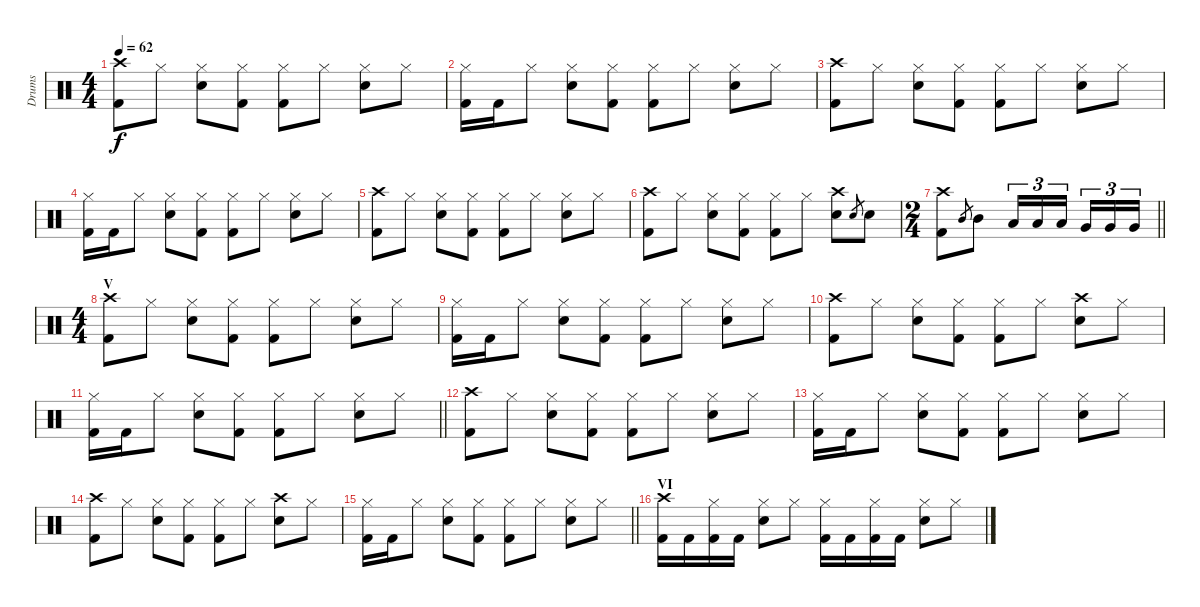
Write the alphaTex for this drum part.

\track ("Drums" "Drums") {instrument percussion}
\staff {score}
\articulation defaults
\ts (4 4)
\tempo 62
\clef neutral
\ks c
("Crash high (hit)" "Kick (hit) 2").8{dy f} "Hi-Hat (closed)".8 ("Hi-Hat (closed)" "Snare (hit) 2").8 ("Hi-Hat (closed)" "Kick (hit) 2").8 ("Hi-Hat (closed)" "Kick (hit) 2").8 "Hi-Hat (closed)".8 ("Hi-Hat (closed)" "Snare (hit) 2").8 "Hi-Hat (closed)".8 |
("Hi-Hat (closed)" "Kick (hit) 2").16 "Kick (hit) 2".16 "Hi-Hat (closed)".8 ("Hi-Hat (closed)" "Snare (hit) 2").8 ("Hi-Hat (closed)" "Kick (hit) 2").8 ("Hi-Hat (closed)" "Kick (hit) 2").8 "Hi-Hat (closed)".8 ("Hi-Hat (closed)" "Snare (hit) 2").8 "Hi-Hat (closed)".8 |
("Crash high (hit)" "Kick (hit) 2").8 "Hi-Hat (closed)".8 ("Hi-Hat (closed)" "Snare (hit) 2").8 ("Hi-Hat (closed)" "Kick (hit) 2").8 ("Hi-Hat (closed)" "Kick (hit) 2").8 "Hi-Hat (closed)".8 ("Hi-Hat (closed)" "Snare (hit) 2").8 "Hi-Hat (closed)".8 |
("Hi-Hat (closed)" "Kick (hit) 2").16 "Kick (hit) 2".16 "Hi-Hat (closed)".8 ("Hi-Hat (closed)" "Snare (hit) 2").8 ("Hi-Hat (closed)" "Kick (hit) 2").8 ("Hi-Hat (closed)" "Kick (hit) 2").8 "Hi-Hat (closed)".8 ("Hi-Hat (closed)" "Snare (hit) 2").8 "Hi-Hat (closed)".8 |
("Crash high (hit)" "Kick (hit) 2").8 "Hi-Hat (closed)".8 ("Hi-Hat (closed)" "Snare (hit) 2").8 ("Hi-Hat (closed)" "Kick (hit) 2").8 ("Hi-Hat (closed)" "Kick (hit) 2").8 "Hi-Hat (closed)".8 ("Hi-Hat (closed)" "Snare (hit) 2").8 "Hi-Hat (closed)".8 |
("Crash high (hit)" "Kick (hit) 2").8 "Hi-Hat (closed)".8 ("Hi-Hat (closed)" "Snare (hit) 2").8 ("Hi-Hat (closed)" "Kick (hit) 2").8 ("Hi-Hat (closed)" "Kick (hit) 2").8 "Hi-Hat (closed)".8 ("Crash high (hit)" "Snare (hit) 2").8 "Snare (hit) 2".8{gr} "Snare (hit) 2".8 |
\ts (2 4)
\barLineRight lightlight
("Crash high (hit)" "Kick (hit) 2").8 "Mid Tom (hit)".8{gr} "Mid Tom (hit)".8 "Low Tom (hit)".16{tu (3 2)} "Low Tom (hit)".16{tu (3 2)} "Low Tom (hit)".16{tu (3 2) beam splitsecondary} "Very Low Tom (hit)".16{tu (3 2)} "Very Low Tom (hit)".16{tu (3 2)} "Very Low Tom (hit)".16{tu (3 2)} |
\ts (4 4)
\section ("" "V")
("Crash high (hit)" "Kick (hit) 2").8 "Hi-Hat (closed)".8 ("Hi-Hat (closed)" "Snare (hit) 2").8 ("Hi-Hat (closed)" "Kick (hit) 2").8 ("Hi-Hat (closed)" "Kick (hit) 2").8 "Hi-Hat (closed)".8 ("Hi-Hat (closed)" "Snare (hit) 2").8 "Hi-Hat (closed)".8 |
("Hi-Hat (closed)" "Kick (hit) 2").16 "Kick (hit) 2".16 "Hi-Hat (closed)".8 ("Hi-Hat (closed)" "Snare (hit) 2").8 ("Hi-Hat (closed)" "Kick (hit) 2").8 ("Hi-Hat (closed)" "Kick (hit) 2").8 "Hi-Hat (closed)".8 ("Hi-Hat (closed)" "Snare (hit) 2").8 "Hi-Hat (closed)".8 |
("Crash high (hit)" "Kick (hit) 2").8 "Hi-Hat (closed)".8 ("Hi-Hat (closed)" "Snare (hit) 2").8 ("Hi-Hat (closed)" "Kick (hit) 2").8 ("Hi-Hat (closed)" "Kick (hit) 2").8 "Hi-Hat (closed)".8 ("Crash high (hit)" "Snare (hit) 2").8 "Hi-Hat (closed)".8 |
\barLineRight lightlight
("Hi-Hat (closed)" "Kick (hit) 2").16 "Kick (hit) 2".16 "Hi-Hat (closed)".8 ("Hi-Hat (closed)" "Snare (hit) 2").8 ("Hi-Hat (closed)" "Kick (hit) 2").8 ("Hi-Hat (closed)" "Kick (hit) 2").8 "Hi-Hat (closed)".8 ("Hi-Hat (closed)" "Snare (hit) 2").8 "Hi-Hat (closed)".8 |
("Crash high (hit)" "Kick (hit) 2").8 "Hi-Hat (closed)".8 ("Hi-Hat (closed)" "Snare (hit) 2").8 ("Hi-Hat (closed)" "Kick (hit) 2").8 ("Hi-Hat (closed)" "Kick (hit) 2").8 "Hi-Hat (closed)".8 ("Hi-Hat (closed)" "Snare (hit) 2").8 "Hi-Hat (closed)".8 |
("Hi-Hat (closed)" "Kick (hit) 2").16 "Kick (hit) 2".16 "Hi-Hat (closed)".8 ("Hi-Hat (closed)" "Snare (hit) 2").8 ("Hi-Hat (closed)" "Kick (hit) 2").8 ("Hi-Hat (closed)" "Kick (hit) 2").8 "Hi-Hat (closed)".8 ("Hi-Hat (closed)" "Snare (hit) 2").8 "Hi-Hat (closed)".8 |
("Crash high (hit)" "Kick (hit) 2").8 "Hi-Hat (closed)".8 ("Hi-Hat (closed)" "Snare (hit) 2").8 ("Hi-Hat (closed)" "Kick (hit) 2").8 ("Hi-Hat (closed)" "Kick (hit) 2").8 "Hi-Hat (closed)".8 ("Crash high (hit)" "Snare (hit) 2").8 "Hi-Hat (closed)".8 |
\barLineRight lightlight
("Hi-Hat (closed)" "Kick (hit) 2").16 "Kick (hit) 2".16 "Hi-Hat (closed)".8 ("Hi-Hat (closed)" "Snare (hit) 2").8 ("Hi-Hat (closed)" "Kick (hit) 2").8 ("Hi-Hat (closed)" "Kick (hit) 2").8 "Hi-Hat (closed)".8 ("Hi-Hat (closed)" "Snare (hit) 2").8 "Hi-Hat (closed)".8 |
\section ("" "VI")
("Crash high (hit)" "Kick (hit) 2").16 "Kick (hit) 2".16 ("Hi-Hat (closed)" "Kick (hit) 2").16 "Kick (hit) 2".16 ("Hi-Hat (closed)" "Snare (hit) 2").8 "Hi-Hat (closed)".8 ("Hi-Hat (closed)" "Kick (hit) 2").16 "Kick (hit) 2".16 ("Hi-Hat (closed)" "Kick (hit) 2").16 "Kick (hit) 2".16 ("Hi-Hat (closed)" "Snare (hit) 2").8 "Hi-Hat (closed)".8
